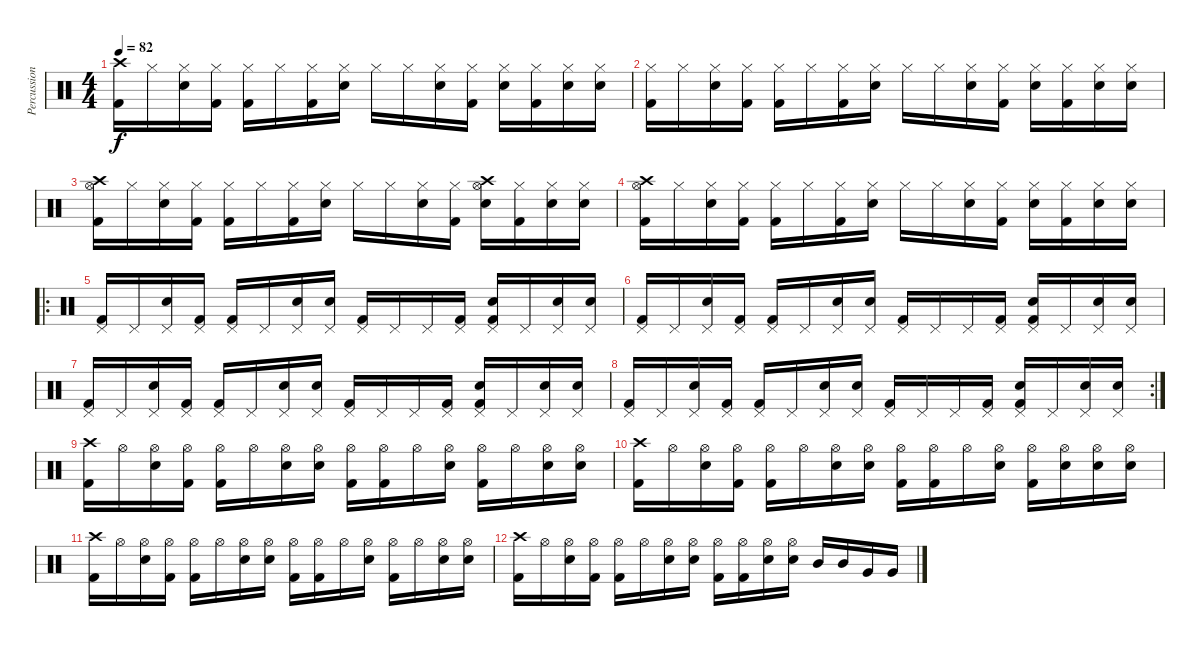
\track ("Percussion" "Percussion") {instrument percussion}
\staff {score}
\articulation defaults
\ts (4 4)
\tempo 82
\clef neutral
\ks c
("Crash high (hit)" "Kick (hit) 2").16{dy f} "Hi-Hat (closed)".16 ("Hi-Hat (closed)" "Snare (hit) 2").16 ("Hi-Hat (closed)" "Kick (hit) 2").16 ("Hi-Hat (closed)" "Kick (hit) 2").16 "Hi-Hat (closed)".16 ("Hi-Hat (closed)" "Kick (hit) 2").16 ("Hi-Hat (closed)" "Snare (hit) 2").16 "Hi-Hat (closed)".16 "Hi-Hat (closed)".16 ("Hi-Hat (closed)" "Snare (hit) 2").16 ("Hi-Hat (closed)" "Kick (hit) 2").16 ("Hi-Hat (closed)" "Snare (hit) 2").16 ("Hi-Hat (closed)" "Kick (hit) 2").16 ("Hi-Hat (closed)" "Snare (hit) 2").16 ("Hi-Hat (closed)" "Snare (hit) 2").16 |
("Hi-Hat (closed)" "Kick (hit) 2").16 "Hi-Hat (closed)".16 ("Hi-Hat (closed)" "Snare (hit) 2").16 ("Hi-Hat (closed)" "Kick (hit) 2").16 ("Hi-Hat (closed)" "Kick (hit) 2").16 "Hi-Hat (closed)".16 ("Hi-Hat (closed)" "Kick (hit) 2").16 ("Hi-Hat (closed)" "Snare (hit) 2").16 "Hi-Hat (closed)".16 "Hi-Hat (closed)".16 ("Hi-Hat (closed)" "Snare (hit) 2").16 ("Hi-Hat (closed)" "Kick (hit) 2").16 ("Hi-Hat (closed)" "Snare (hit) 2").16 ("Hi-Hat (closed)" "Kick (hit) 2").16 ("Hi-Hat (closed)" "Snare (hit) 2").16 ("Hi-Hat (closed)" "Snare (hit) 2").16 |
("Crash high (hit)" "Hi-Hat (open)" "Kick (hit) 2").16 "Hi-Hat (closed)".16 ("Hi-Hat (closed)" "Snare (hit) 2").16 ("Hi-Hat (closed)" "Kick (hit) 2").16 ("Hi-Hat (closed)" "Kick (hit) 2").16 "Hi-Hat (closed)".16 ("Hi-Hat (closed)" "Kick (hit) 2").16 ("Hi-Hat (closed)" "Snare (hit) 2").16 "Hi-Hat (closed)".16 "Hi-Hat (closed)".16 ("Hi-Hat (closed)" "Snare (hit) 2").16 ("Hi-Hat (closed)" "Kick (hit) 2").16 ("Crash high (hit)" "Hi-Hat (open)" "Snare (hit) 2").16 ("Hi-Hat (closed)" "Kick (hit) 2").16 ("Hi-Hat (closed)" "Snare (hit) 2").16 ("Hi-Hat (closed)" "Snare (hit) 2").16 |
("Crash high (hit)" "Hi-Hat (open)" "Kick (hit) 2").16 "Hi-Hat (closed)".16 ("Hi-Hat (closed)" "Snare (hit) 2").16 ("Hi-Hat (closed)" "Kick (hit) 2").16 ("Hi-Hat (closed)" "Kick (hit) 2").16 "Hi-Hat (closed)".16 ("Hi-Hat (closed)" "Kick (hit) 2").16 ("Hi-Hat (closed)" "Snare (hit) 2").16 "Hi-Hat (closed)".16 "Hi-Hat (closed)".16 ("Hi-Hat (closed)" "Snare (hit) 2").16 ("Hi-Hat (closed)" "Kick (hit) 2").16 ("Hi-Hat (closed)" "Snare (hit) 2").16 ("Hi-Hat (closed)" "Kick (hit) 2").16 ("Hi-Hat (closed)" "Snare (hit) 2").16 ("Hi-Hat (closed)" "Snare (hit) 2").16 |
\ro
("Pedal Hi-Hat (hit)" "Kick (hit) 2").16 "Pedal Hi-Hat (hit)".16 ("Pedal Hi-Hat (hit)" "Snare (hit) 2").16 ("Pedal Hi-Hat (hit)" "Kick (hit) 2").16 ("Pedal Hi-Hat (hit)" "Kick (hit) 2").16 "Pedal Hi-Hat (hit)".16 ("Pedal Hi-Hat (hit)" "Snare (hit) 2").16 ("Pedal Hi-Hat (hit)" "Snare (hit) 2").16 ("Pedal Hi-Hat (hit)" "Kick (hit) 2").16 "Pedal Hi-Hat (hit)".16 "Pedal Hi-Hat (hit)".16 ("Pedal Hi-Hat (hit)" "Kick (hit) 2").16 ("Pedal Hi-Hat (hit)" "Snare (hit) 2" "Kick (hit) 2").16 "Pedal Hi-Hat (hit)".16 ("Pedal Hi-Hat (hit)" "Snare (hit) 2").16 ("Pedal Hi-Hat (hit)" "Snare (hit) 2").16 |
("Pedal Hi-Hat (hit)" "Kick (hit) 2").16 "Pedal Hi-Hat (hit)".16 ("Pedal Hi-Hat (hit)" "Snare (hit) 2").16 ("Pedal Hi-Hat (hit)" "Kick (hit) 2").16 ("Pedal Hi-Hat (hit)" "Kick (hit) 2").16 "Pedal Hi-Hat (hit)".16 ("Pedal Hi-Hat (hit)" "Snare (hit) 2").16 ("Pedal Hi-Hat (hit)" "Snare (hit) 2").16 ("Pedal Hi-Hat (hit)" "Kick (hit) 2").16 "Pedal Hi-Hat (hit)".16 "Pedal Hi-Hat (hit)".16 ("Pedal Hi-Hat (hit)" "Kick (hit) 2").16 ("Pedal Hi-Hat (hit)" "Snare (hit) 2" "Kick (hit) 2").16 "Pedal Hi-Hat (hit)".16 ("Pedal Hi-Hat (hit)" "Snare (hit) 2").16 ("Pedal Hi-Hat (hit)" "Snare (hit) 2").16 |
("Pedal Hi-Hat (hit)" "Kick (hit) 2").16 "Pedal Hi-Hat (hit)".16 ("Pedal Hi-Hat (hit)" "Snare (hit) 2").16 ("Pedal Hi-Hat (hit)" "Kick (hit) 2").16 ("Pedal Hi-Hat (hit)" "Kick (hit) 2").16 "Pedal Hi-Hat (hit)".16 ("Pedal Hi-Hat (hit)" "Snare (hit) 2").16 ("Pedal Hi-Hat (hit)" "Snare (hit) 2").16 ("Pedal Hi-Hat (hit)" "Kick (hit) 2").16 "Pedal Hi-Hat (hit)".16 "Pedal Hi-Hat (hit)".16 ("Pedal Hi-Hat (hit)" "Kick (hit) 2").16 ("Pedal Hi-Hat (hit)" "Snare (hit) 2" "Kick (hit) 2").16 "Pedal Hi-Hat (hit)".16 ("Pedal Hi-Hat (hit)" "Snare (hit) 2").16 ("Pedal Hi-Hat (hit)" "Snare (hit) 2").16 |
\rc 2
("Pedal Hi-Hat (hit)" "Kick (hit) 2").16 "Pedal Hi-Hat (hit)".16 ("Pedal Hi-Hat (hit)" "Snare (hit) 2").16 ("Pedal Hi-Hat (hit)" "Kick (hit) 2").16 ("Pedal Hi-Hat (hit)" "Kick (hit) 2").16 "Pedal Hi-Hat (hit)".16 ("Pedal Hi-Hat (hit)" "Snare (hit) 2").16 ("Pedal Hi-Hat (hit)" "Snare (hit) 2").16 ("Pedal Hi-Hat (hit)" "Kick (hit) 2").16 "Pedal Hi-Hat (hit)".16 "Pedal Hi-Hat (hit)".16 ("Pedal Hi-Hat (hit)" "Kick (hit) 2").16 ("Pedal Hi-Hat (hit)" "Snare (hit) 2" "Kick (hit) 2").16 "Pedal Hi-Hat (hit)".16 ("Pedal Hi-Hat (hit)" "Snare (hit) 2").16 ("Pedal Hi-Hat (hit)" "Snare (hit) 2").16 |
("Crash high (hit)" "Kick (hit) 2").16 "Hi-Hat (open)".16 ("Hi-Hat (open)" "Snare (hit) 2").16 ("Hi-Hat (open)" "Kick (hit) 2").16 ("Hi-Hat (open)" "Kick (hit) 2").16 "Hi-Hat (open)".16 ("Hi-Hat (open)" "Snare (hit) 2").16 ("Hi-Hat (open)" "Snare (hit) 2").16 ("Hi-Hat (open)" "Kick (hit) 2").16 ("Hi-Hat (open)" "Kick (hit) 2").16 "Hi-Hat (open)".16 ("Hi-Hat (open)" "Snare (hit) 2").16 ("Hi-Hat (open)" "Kick (hit) 2").16 "Hi-Hat (open)".16 ("Hi-Hat (open)" "Snare (hit) 2").16 ("Hi-Hat (open)" "Snare (hit) 2").16 |
("Crash high (hit)" "Kick (hit) 2").16 "Hi-Hat (open)".16 ("Hi-Hat (open)" "Snare (hit) 2").16 ("Hi-Hat (open)" "Kick (hit) 2").16 ("Hi-Hat (open)" "Kick (hit) 2").16 "Hi-Hat (open)".16 ("Hi-Hat (open)" "Snare (hit) 2").16 ("Hi-Hat (open)" "Snare (hit) 2").16 ("Hi-Hat (open)" "Kick (hit) 2").16 ("Hi-Hat (open)" "Kick (hit) 2").16 "Hi-Hat (open)".16 ("Hi-Hat (open)" "Snare (hit) 2").16 ("Hi-Hat (open)" "Kick (hit) 2").16 ("Hi-Hat (open)" "Snare (hit) 2").16 ("Hi-Hat (open)" "Snare (hit) 2").16 ("Hi-Hat (open)" "Snare (hit) 2").16 |
("Crash high (hit)" "Kick (hit) 2").16 "Hi-Hat (open)".16 ("Hi-Hat (open)" "Snare (hit) 2").16 ("Hi-Hat (open)" "Kick (hit) 2").16 ("Hi-Hat (open)" "Kick (hit) 2").16 "Hi-Hat (open)".16 ("Hi-Hat (open)" "Snare (hit) 2").16 ("Hi-Hat (open)" "Snare (hit) 2").16 ("Hi-Hat (open)" "Kick (hit) 2").16 ("Hi-Hat (open)" "Kick (hit) 2").16 "Hi-Hat (open)".16 ("Hi-Hat (open)" "Snare (hit) 2").16 ("Hi-Hat (open)" "Kick (hit) 2").16 "Hi-Hat (open)".16 ("Hi-Hat (open)" "Snare (hit) 2").16 ("Hi-Hat (open)" "Snare (hit) 2").16 |
("Crash high (hit)" "Kick (hit) 2").16 "Hi-Hat (open)".16 ("Hi-Hat (open)" "Snare (hit) 2").16 ("Hi-Hat (open)" "Kick (hit) 2").16 ("Hi-Hat (open)" "Kick (hit) 2").16 "Hi-Hat (open)".16 ("Hi-Hat (open)" "Snare (hit) 2").16 ("Hi-Hat (open)" "Snare (hit) 2").16 ("Hi-Hat (open)" "Kick (hit) 2").16 ("Hi-Hat (open)" "Kick (hit) 2").16 ("Hi-Hat (open)" "Snare (hit) 2").16 ("Hi-Hat (open)" "Snare (hit) 2").16 "Mid Tom (hit)".16 "Mid Tom (hit)".16 "Very Low Tom (hit)".16 "Very Low Tom (hit)".16
